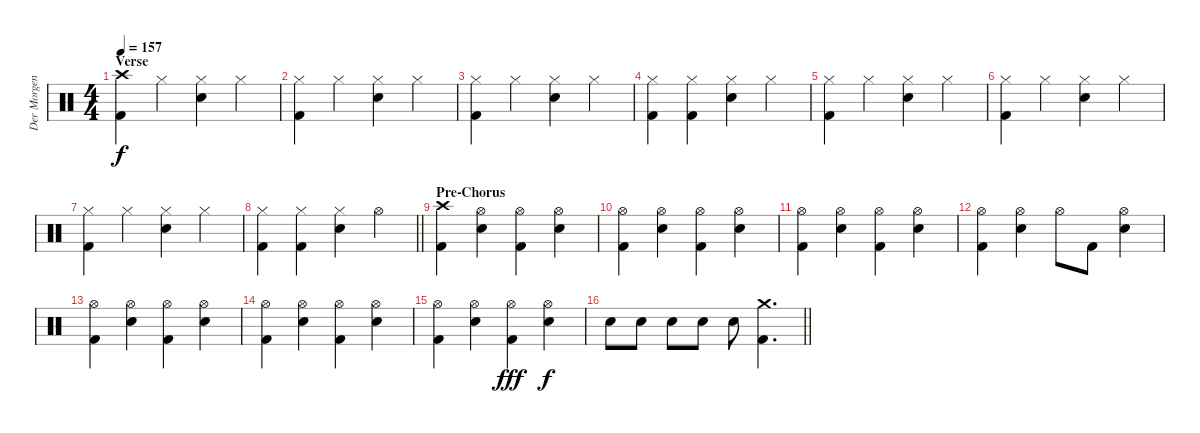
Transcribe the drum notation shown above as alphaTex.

\track ("Der Morgenstern" "Der Morgen") {instrument percussion}
\staff {score}
\articulation defaults
\ts (4 4)
\section ("" "Verse")
\tempo 157
\clef neutral
\ks c
("Crash high (hit)" "Kick (hit) 2").4{dy f} "Hi-Hat (closed)".4 ("Hi-Hat (closed)" "Electric Snare (hit)").4 "Hi-Hat (closed)".4 |
("Hi-Hat (closed)" "Kick (hit) 2").4 "Hi-Hat (closed)".4 ("Hi-Hat (closed)" "Electric Snare (hit)").4 "Hi-Hat (closed)".4 |
("Hi-Hat (closed)" "Kick (hit) 2").4 "Hi-Hat (closed)".4 ("Hi-Hat (closed)" "Electric Snare (hit)").4 "Hi-Hat (closed)".4 |
("Hi-Hat (closed)" "Kick (hit) 2").4 ("Hi-Hat (closed)" "Kick (hit) 2").4 ("Hi-Hat (closed)" "Electric Snare (hit)").4 "Hi-Hat (closed)".4 |
("Hi-Hat (closed)" "Kick (hit) 2").4 "Hi-Hat (closed)".4 ("Hi-Hat (closed)" "Electric Snare (hit)").4 "Hi-Hat (closed)".4 |
("Hi-Hat (closed)" "Kick (hit) 2").4 "Hi-Hat (closed)".4 ("Hi-Hat (closed)" "Electric Snare (hit)").4 "Hi-Hat (closed)".4 |
("Hi-Hat (closed)" "Kick (hit) 2").4 "Hi-Hat (closed)".4 ("Hi-Hat (closed)" "Electric Snare (hit)").4 "Hi-Hat (closed)".4 |
\barLineRight lightlight
("Hi-Hat (closed)" "Kick (hit) 2").4 ("Hi-Hat (closed)" "Kick (hit) 2").4 ("Hi-Hat (closed)" "Electric Snare (hit)").4 "Hi-Hat (open)".4 |
\section ("" "Pre-Chorus")
("Crash high (hit)" "Kick (hit) 2").4 ("Hi-Hat (open)" "Electric Snare (hit)").4 ("Hi-Hat (open)" "Kick (hit) 2").4 ("Hi-Hat (open)" "Electric Snare (hit)").4 |
("Hi-Hat (open)" "Kick (hit) 2").4 ("Hi-Hat (open)" "Electric Snare (hit)").4 ("Hi-Hat (open)" "Kick (hit) 2").4 ("Hi-Hat (open)" "Electric Snare (hit)").4 |
("Hi-Hat (open)" "Kick (hit) 2").4 ("Hi-Hat (open)" "Electric Snare (hit)").4 ("Hi-Hat (open)" "Kick (hit) 2").4 ("Hi-Hat (open)" "Electric Snare (hit)").4 |
("Hi-Hat (open)" "Kick (hit) 2").4 ("Hi-Hat (open)" "Electric Snare (hit)").4 "Hi-Hat (open)".8 "Kick (hit) 2".8 ("Hi-Hat (open)" "Electric Snare (hit)").4 |
("Hi-Hat (open)" "Kick (hit) 2").4 ("Hi-Hat (open)" "Electric Snare (hit)").4 ("Hi-Hat (open)" "Kick (hit) 2").4 ("Hi-Hat (open)" "Electric Snare (hit)").4 |
("Hi-Hat (open)" "Kick (hit) 2").4 ("Hi-Hat (open)" "Electric Snare (hit)").4 ("Hi-Hat (open)" "Kick (hit) 2").4 ("Hi-Hat (open)" "Electric Snare (hit)").4 |
("Hi-Hat (open)" "Kick (hit) 2").4 ("Hi-Hat (open)" "Electric Snare (hit)").4 ("Hi-Hat (open)" "Kick (hit) 2").4{dy fff} ("Hi-Hat (open)" "Electric Snare (hit)").4{dy f} |
\barLineRight lightlight "Electric Snare (hit)".8 "Electric Snare (hit)".8 "Electric Snare (hit)".8 "Electric Snare (hit)".8 "Electric Snare (hit)".8
("Crash medium (hit)" "Kick (hit) 2").4{d}
